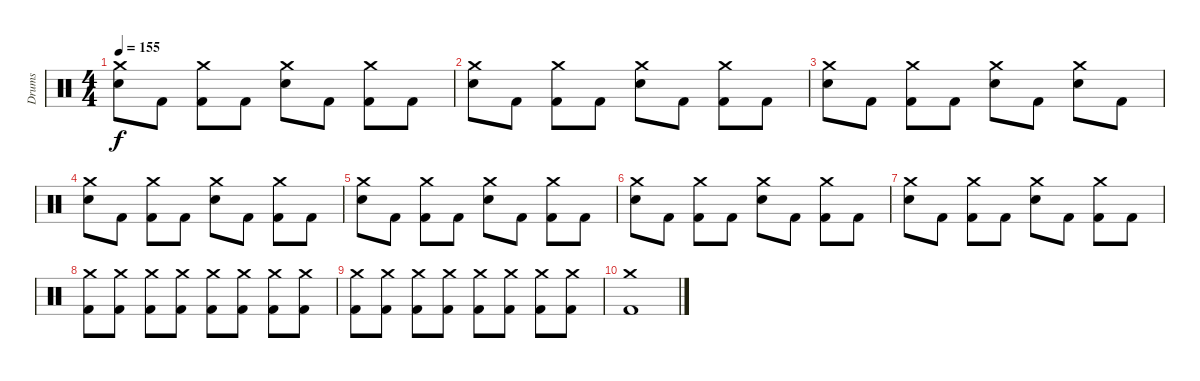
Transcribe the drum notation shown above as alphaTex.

\track ("Drums" "Drums") {instrument percussion bank 255}
\staff {score}
\articulation defaults
\ts (4 4)
\tempo 155
\clef neutral
\ks c
("Crash medium (hit)" "Electric Snare (hit)").8{dy f} "Kick (hit) 2".8 ("Crash medium (hit)" "Kick (hit) 2").8 "Kick (hit) 2".8 ("Crash medium (hit)" "Electric Snare (hit)").8 "Kick (hit) 2".8 ("Crash medium (hit)" "Kick (hit) 2").8 "Kick (hit) 2".8 |
("Crash medium (hit)" "Electric Snare (hit)").8 "Kick (hit) 2".8 ("Crash medium (hit)" "Kick (hit) 2").8 "Kick (hit) 2".8 ("Crash medium (hit)" "Electric Snare (hit)").8 "Kick (hit) 2".8 ("Crash medium (hit)" "Kick (hit) 2").8 "Kick (hit) 2".8 |
("Crash medium (hit)" "Electric Snare (hit)").8 "Kick (hit) 2".8 ("Crash medium (hit)" "Kick (hit) 2").8 "Kick (hit) 2".8 ("Crash medium (hit)" "Electric Snare (hit)").8 "Kick (hit) 2".8 ("Crash medium (hit)" "Electric Snare (hit)").8 "Kick (hit) 2".8 |
("Crash medium (hit)" "Electric Snare (hit)").8 "Kick (hit) 2".8 ("Crash medium (hit)" "Kick (hit) 2").8 "Kick (hit) 2".8 ("Crash medium (hit)" "Electric Snare (hit)").8 "Kick (hit) 2".8 ("Crash medium (hit)" "Kick (hit) 2").8 "Kick (hit) 2".8 |
("Crash medium (hit)" "Electric Snare (hit)").8 "Kick (hit) 2".8 ("Crash medium (hit)" "Kick (hit) 2").8 "Kick (hit) 2".8 ("Crash medium (hit)" "Electric Snare (hit)").8 "Kick (hit) 2".8 ("Crash medium (hit)" "Kick (hit) 2").8 "Kick (hit) 2".8 |
("Crash medium (hit)" "Electric Snare (hit)").8 "Kick (hit) 2".8 ("Crash medium (hit)" "Kick (hit) 2").8 "Kick (hit) 2".8 ("Crash medium (hit)" "Electric Snare (hit)").8 "Kick (hit) 2".8 ("Crash medium (hit)" "Kick (hit) 2").8 "Kick (hit) 2".8 |
("Crash medium (hit)" "Electric Snare (hit)").8 "Kick (hit) 2".8 ("Crash medium (hit)" "Kick (hit) 2").8 "Kick (hit) 2".8 ("Crash medium (hit)" "Electric Snare (hit)").8 "Kick (hit) 2".8 ("Crash medium (hit)" "Kick (hit) 2").8 "Kick (hit) 2".8 |
("Crash medium (hit)" "Kick (hit) 2").8 ("Crash medium (hit)" "Kick (hit) 2").8 ("Crash medium (hit)" "Kick (hit) 2").8 ("Crash medium (hit)" "Kick (hit) 2").8 ("Crash medium (hit)" "Kick (hit) 2").8 ("Crash medium (hit)" "Kick (hit) 2").8 ("Crash medium (hit)" "Kick (hit) 2").8 ("Crash medium (hit)" "Kick (hit) 2").8 |
("Crash medium (hit)" "Kick (hit) 2").8 ("Crash medium (hit)" "Kick (hit) 2").8 ("Crash medium (hit)" "Kick (hit) 2").8 ("Crash medium (hit)" "Kick (hit) 2").8 ("Crash medium (hit)" "Kick (hit) 2").8 ("Crash medium (hit)" "Kick (hit) 2").8 ("Crash medium (hit)" "Kick (hit) 2").8 ("Crash medium (hit)" "Kick (hit) 2").8 |
("Crash medium (hit)" "Kick (hit) 2").1
